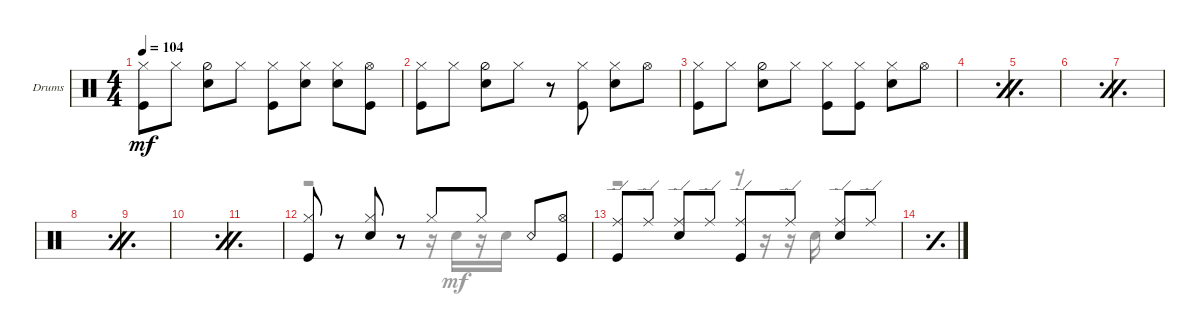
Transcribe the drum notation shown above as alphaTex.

\defaultSystemsLayout 4
\bracketExtendMode groupsimilarinstruments
\firstSystemTrackNameOrientation horizontal
\otherSystemsTrackNameOrientation horizontal
\track ("Алена" "Drums") {instrument percussion}
\staff {score}
\articulation defaults
\voice
\ts (4 4)
\tempo 104
\clef neutral
\ks c
("Hi-Hat (closed)" "Kick (hit)").8{dy mf} "Hi-Hat (closed)".8 ("Hi-Hat (half)" "Snare (hit) 2").8 "Hi-Hat (closed)".8 ("Hi-Hat (closed)" "Kick (hit)").8 ("Hi-Hat (closed)" "Snare (hit) 2").8 ("Hi-Hat (closed)" "Snare (hit) 2").8 ("Hi-Hat (open)" "Kick (hit)").8 |
("Hi-Hat (closed)" "Kick (hit)").8 "Hi-Hat (closed)".8 ("Hi-Hat (half)" "Snare (hit) 2").8 "Hi-Hat (closed)".8 r.8 ("Hi-Hat (closed)" "Kick (hit)").8 ("Hi-Hat (closed)" "Snare (hit) 2").8 "Hi-Hat (open)".8 |
("Hi-Hat (closed)" "Kick (hit)").8 "Hi-Hat (closed)".8 ("Hi-Hat (half)" "Snare (hit) 2").8 "Hi-Hat (closed)".8 ("Hi-Hat (closed)" "Kick (hit)").8 ("Hi-Hat (closed)" "Kick (hit)").8 ("Hi-Hat (closed)" "Snare (hit) 2").8 "Hi-Hat (open)".8 |
\simile firstofdouble
|
\simile secondofdouble
|
\simile firstofdouble
|
\simile secondofdouble
|
\simile firstofdouble
|
\simile secondofdouble
|
\simile firstofdouble
|
\simile secondofdouble
|
\simile none
("Hi-Hat (closed)" "Kick (hit)").8 r.8 ("Snare (hit) 2" "Hi-Hat (closed)").8 r.8 "Hi-Hat (closed)".8 "Hi-Hat (closed)".8 "Snare (rim shot)".8 ("Hi-Hat (open)" "Kick (hit)").8 |
("Kick (hit)" "Ride (edge)").8 "Ride (edge)".8 ("Snare (hit) 2" "Ride (edge)").8 "Ride (edge)".8 ("Kick (hit)" "Ride (edge)").8 "Ride (edge)".8 ("Snare (hit) 2" "Ride (edge)").8 "Ride (edge)".8 |
\simile simple
|
|
\voice
\clef neutral
\ottava regular
\simile none
\ks c
|
|
|
\simile firstofdouble
|
\simile secondofdouble
|
\simile firstofdouble
|
\simile secondofdouble
|
\simile firstofdouble
|
\simile secondofdouble
|
\simile firstofdouble
|
\simile secondofdouble
|
\simile none
r.2 r.16 "Snare (hit) 2".16 r.16 "Snare (hit) 2".16 |
r.2 r.16 r.16 r.16 "Snare (hit) 2".16 |
\simile simple
|
|
